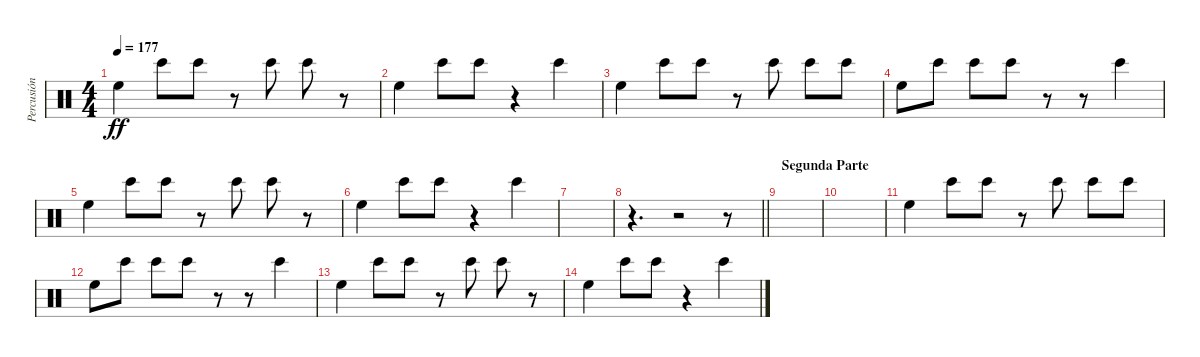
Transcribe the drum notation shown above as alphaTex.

\track ("Percusión" "Percusión") {instrument percussion}
\staff {score}
\articulation defaults
\ts (4 4)
\tempo 177
\clef neutral
\ks c "High Floor Tom (hit)".4{dy ff} "Bongo High (hit)".8 "Bongo High (hit)".8
r.8 "Bongo High (hit)".8 "Bongo High (hit)".8 r.8 |
"High Floor Tom (hit)".4 "Bongo High (hit)".8 "Bongo High (hit)".8 r.4 "Bongo High (hit)".4 |
"High Floor Tom (hit)".4 "Bongo High (hit)".8 "Bongo High (hit)".8 r.8 "Bongo High (hit)".8 "Bongo High (hit)".8 "Bongo High (hit)".8 |
"High Floor Tom (hit)".8 "Bongo High (hit)".8 "Bongo High (hit)".8 "Bongo High (hit)".8 r.8 r.8 "Bongo High (hit)".4 |
"High Floor Tom (hit)".4 "Bongo High (hit)".8 "Bongo High (hit)".8 r.8 "Bongo High (hit)".8 "Bongo High (hit)".8 r.8 |
"High Floor Tom (hit)".4 "Bongo High (hit)".8 "Bongo High (hit)".8 r.4 "Bongo High (hit)".4 |
|
\barLineRight lightlight
r.4{d} r.2 r.8 |
\section ("" "Segunda Parte")
|
|
"High Floor Tom (hit)".4 "Bongo High (hit)".8 "Bongo High (hit)".8 r.8 "Bongo High (hit)".8 "Bongo High (hit)".8 "Bongo High (hit)".8 |
"High Floor Tom (hit)".8 "Bongo High (hit)".8 "Bongo High (hit)".8 "Bongo High (hit)".8 r.8 r.8 "Bongo High (hit)".4 |
"High Floor Tom (hit)".4 "Bongo High (hit)".8 "Bongo High (hit)".8 r.8 "Bongo High (hit)".8 "Bongo High (hit)".8 r.8 |
"High Floor Tom (hit)".4 "Bongo High (hit)".8 "Bongo High (hit)".8 r.4 "Bongo High (hit)".4
